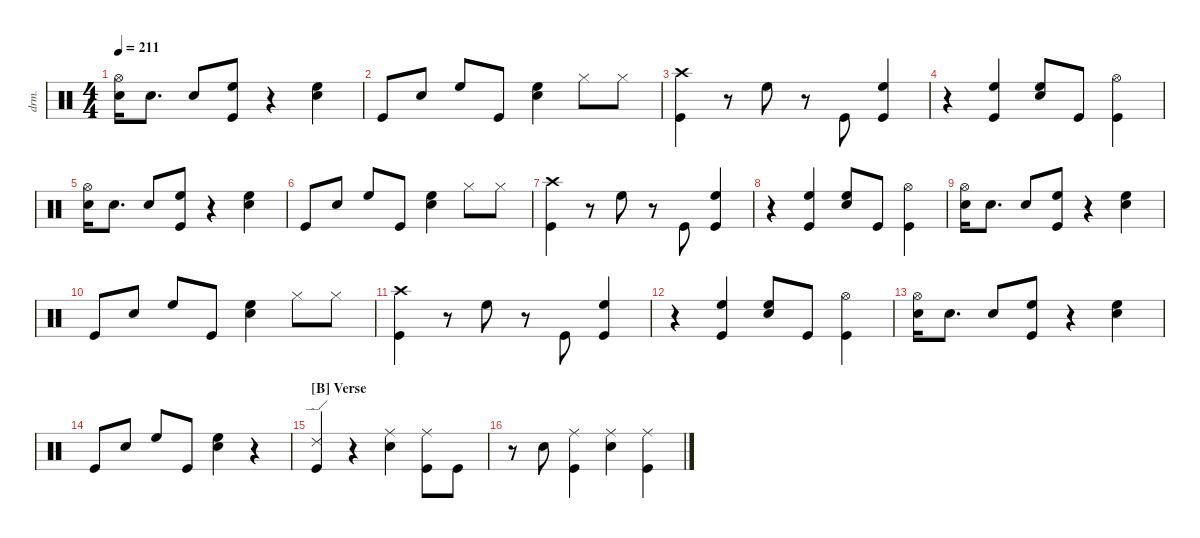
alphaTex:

\defaultSystemsLayout 4
\hideDynamics
\bracketExtendMode nobrackets
\track ("Drums" "drm.") {instrument percussion}
\staff {score}
\articulation defaults
\ts (4 4)
\tempo 211
\clef neutral
\ks c
("Snare (hit) 2" "Hi-Hat (open)"{acc #}).16{dy f beam Down} "Snare (hit) 2".8{d dy mp beam Down} "Snare (hit) 2".8{dy ff beam Up} ("Kick (hit)" "High Floor Tom (hit)").8{beam Up} r.4{beam Down} ("Snare (hit) 2" "High Floor Tom (hit)").4{beam Down} |
"Kick (hit)".8{beam Up} "Snare (hit) 2".8{beam Up} "High Floor Tom (hit)".8{dy mf beam Up} "Kick (hit)".8{dy ff beam Up} ("Snare (hit) 2" "High Floor Tom (hit)").4{beam Down} "Hi-Hat (closed)"{acc #}.8{beam Down} "Hi-Hat (closed)"{acc #}.8{beam Down} |
("Kick (hit)" "Crash high (hit)"{acc #}).4{beam Down} r.8{beam Down} "High Floor Tom (hit)".8{dy f beam Down} r.8{beam Down} "Kick (hit)".8{dy mf beam Up} ("Kick (hit)" "High Floor Tom (hit)").4{dy ff beam Up} |
r.4{beam Down} ("Kick (hit)" "High Floor Tom (hit)").4{beam Up} ("Snare (hit) 2" "High Floor Tom (hit)").8{beam Up} "Kick (hit)".8{dy mf beam Up} ("Kick (hit)" "Hi-Hat (open)"{acc #}).4{dy ff beam Down} |
("Snare (hit) 2" "Hi-Hat (open)"{acc #}).16{dy f beam Down} "Snare (hit) 2".8{d dy mp beam Down} "Snare (hit) 2".8{dy ff beam Up} ("Kick (hit)" "High Floor Tom (hit)").8{beam Up} r.4{beam Down} ("Snare (hit) 2" "High Floor Tom (hit)").4{beam Down} |
"Kick (hit)".8{beam Up} "Snare (hit) 2".8{beam Up} "High Floor Tom (hit)".8{dy mf beam Up} "Kick (hit)".8{dy ff beam Up} ("Snare (hit) 2" "High Floor Tom (hit)").4{beam Down} "Hi-Hat (closed)"{acc #}.8{beam Down} "Hi-Hat (closed)"{acc #}.8{beam Down} |
("Kick (hit)" "Crash high (hit)"{acc #}).4{beam Down} r.8{beam Down} "High Floor Tom (hit)".8{dy f beam Down} r.8{beam Down} "Kick (hit)".8{dy mf beam Up} ("Kick (hit)" "High Floor Tom (hit)").4{dy ff beam Up} |
r.4{beam Down} ("Kick (hit)" "High Floor Tom (hit)").4{beam Up} ("Snare (hit) 2" "High Floor Tom (hit)").8{beam Up} "Kick (hit)".8{dy mf beam Up} ("Kick (hit)" "Hi-Hat (open)"{acc #}).4{dy ff beam Down} |
("Snare (hit) 2" "Hi-Hat (open)"{acc #}).16{dy f beam Down} "Snare (hit) 2".8{d dy mp beam Down} "Snare (hit) 2".8{dy ff beam Up} ("Kick (hit)" "High Floor Tom (hit)").8{beam Up} r.4{beam Down} ("Snare (hit) 2" "High Floor Tom (hit)").4{beam Down} |
"Kick (hit)".8{beam Up} "Snare (hit) 2".8{beam Up} "High Floor Tom (hit)".8{dy mf beam Up} "Kick (hit)".8{dy ff beam Up} ("Snare (hit) 2" "High Floor Tom (hit)").4{beam Down} "Hi-Hat (closed)"{acc #}.8{beam Down} "Hi-Hat (closed)"{acc #}.8{beam Down} |
("Kick (hit)" "Crash high (hit)"{acc #}).4{beam Down} r.8{beam Down} "High Floor Tom (hit)".8{dy f beam Down} r.8{beam Down} "Kick (hit)".8{dy mf beam Up} ("Kick (hit)" "High Floor Tom (hit)").4{dy ff beam Up} |
r.4{beam Down} ("Kick (hit)" "High Floor Tom (hit)").4{beam Up} ("Snare (hit) 2" "High Floor Tom (hit)").8{beam Up} "Kick (hit)".8{dy mf beam Up} ("Kick (hit)" "Hi-Hat (open)"{acc #}).4{dy ff beam Down} |
("Snare (hit) 2" "Hi-Hat (open)"{acc #}).16{dy f beam Down} "Snare (hit) 2".8{d dy mp beam Down} "Snare (hit) 2".8{dy ff beam Up} ("Kick (hit)" "High Floor Tom (hit)").8{beam Up} r.4{beam Down} ("Snare (hit) 2" "High Floor Tom (hit)").4{beam Down} |
"Kick (hit)".8{beam Up} "Snare (hit) 2".8{beam Up} "High Floor Tom (hit)".8{dy mf beam Up} "Kick (hit)".8{dy ff beam Up} ("Snare (hit) 2" "High Floor Tom (hit)").4{dy fff beam Down} r.4{beam Down} |
\section ("B" "Verse")
("Kick (hit)" "Ride (edge) 2").4{beam Up} r.4{beam Down} ("Snare (hit) 2" "Ride (middle)"{acc #}).4{dy ff beam Down} ("Kick (hit)" "Ride (middle)"{acc #}).8{dy f beam Down} "Kick (hit)".8{dy fff beam Down} |
r.8{beam Down} "Snare (hit) 2".8{dy p beam Down} ("Kick (hit)" "Ride (middle)"{acc #}).4{dy ff beam Down} ("Snare (hit) 2" "Ride (middle)"{acc #}).4{beam Down} ("Kick (hit)" "Ride (middle)"{acc #}).4{dy mf beam Down}
